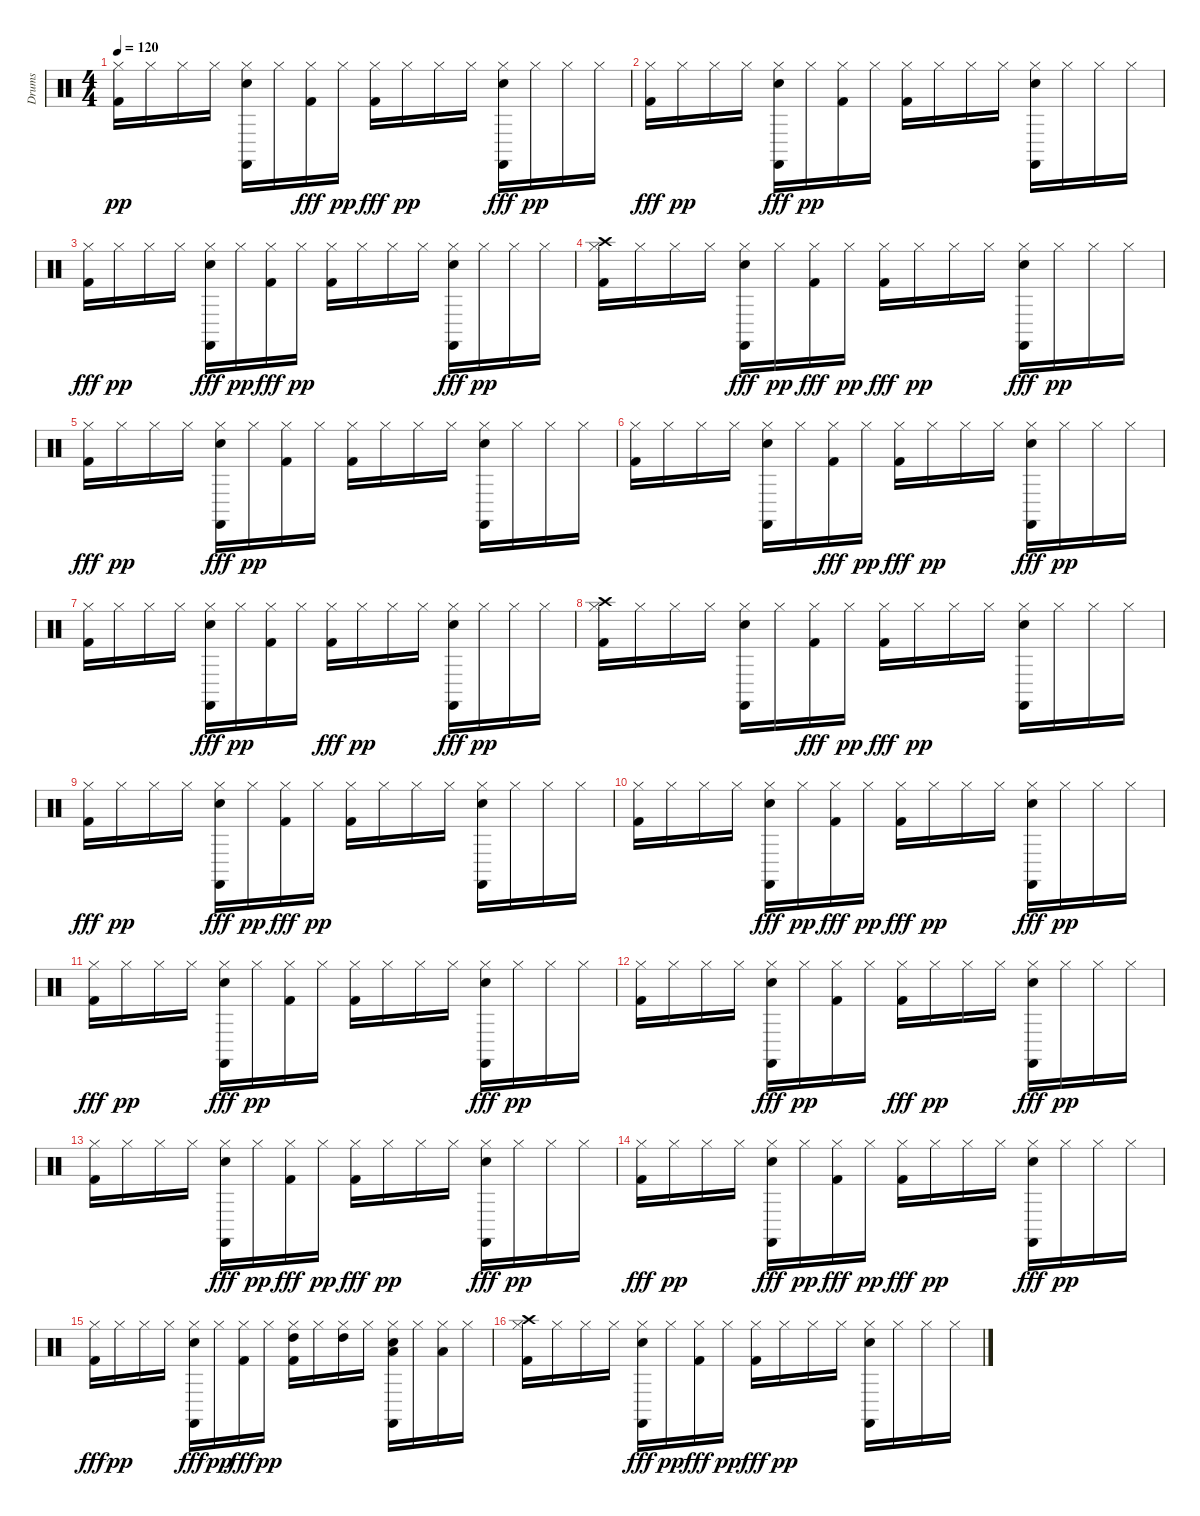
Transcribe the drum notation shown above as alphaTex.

\track ("Drums" "Drums") {instrument percussion}
\staff {score}
\articulation defaults
\ts (4 4)
\tempo 120
\clef neutral
\ks c
("Kick (hit) 2" "Hi-Hat (closed)").16{dy pp} "Hi-Hat (closed)".16 "Hi-Hat (closed)".16 "Hi-Hat (closed)".16 ("Castanets (hit)" "Snare (hit) 2" "Hi-Hat (closed)").16 "Hi-Hat (closed)".16 ("Hi-Hat (closed)" "Kick (hit) 2").16{dy fff} "Hi-Hat (closed)".16{dy pp} ("Hi-Hat (closed)" "Kick (hit) 2").16{dy fff} "Hi-Hat (closed)".16{dy pp} "Hi-Hat (closed)".16 "Hi-Hat (closed)".16 ("Hi-Hat (closed)" "Snare (hit) 2" "Castanets (hit)").16{dy fff} "Hi-Hat (closed)".16{dy pp} "Hi-Hat (closed)".16 "Hi-Hat (closed)".16 |
("Hi-Hat (closed)" "Kick (hit) 2").16{dy fff} "Hi-Hat (closed)".16{dy pp} "Hi-Hat (closed)".16 "Hi-Hat (closed)".16 ("Snare (hit) 2" "Hi-Hat (closed)" "Castanets (hit)").16{dy fff} "Hi-Hat (closed)".16{dy pp} ("Kick (hit) 2" "Hi-Hat (closed)").16 "Hi-Hat (closed)".16 ("Kick (hit) 2" "Hi-Hat (closed)").16 "Hi-Hat (closed)".16 "Hi-Hat (closed)".16 "Hi-Hat (closed)".16 ("Castanets (hit)" "Snare (hit) 2" "Hi-Hat (closed)").16 "Hi-Hat (closed)".16 "Hi-Hat (closed)".16 "Hi-Hat (closed)".16 |
("Hi-Hat (closed)" "Kick (hit) 2").16{dy fff} "Hi-Hat (closed)".16{dy pp} "Hi-Hat (closed)".16 "Hi-Hat (closed)".16 ("Hi-Hat (closed)" "Snare (hit) 2" "Castanets (hit)").16{dy fff} "Hi-Hat (closed)".16{dy pp} ("Hi-Hat (closed)" "Kick (hit) 2").16{dy fff} "Hi-Hat (closed)".16{dy pp} ("Kick (hit) 2" "Hi-Hat (closed)").16 "Hi-Hat (closed)".16 "Hi-Hat (closed)".16 "Hi-Hat (closed)".16 ("Snare (hit) 2" "Hi-Hat (closed)" "Castanets (hit)").16{dy fff} "Hi-Hat (closed)".16{dy pp} "Hi-Hat (closed)".16 "Hi-Hat (closed)".16 |
("Kick (hit) 2" "Crash high (hit)" "Hi-Hat (closed)").16 "Hi-Hat (closed)".16 "Hi-Hat (closed)".16 "Hi-Hat (closed)".16 ("Hi-Hat (closed)" "Snare (hit) 2" "Castanets (hit)").16{dy fff} "Hi-Hat (closed)".16{dy pp} ("Hi-Hat (closed)" "Kick (hit) 2").16{dy fff} "Hi-Hat (closed)".16{dy pp} ("Hi-Hat (closed)" "Kick (hit) 2").16{dy fff} "Hi-Hat (closed)".16{dy pp} "Hi-Hat (closed)".16 "Hi-Hat (closed)".16 ("Hi-Hat (closed)" "Snare (hit) 2" "Castanets (hit)").16{dy fff} "Hi-Hat (closed)".16{dy pp} "Hi-Hat (closed)".16 "Hi-Hat (closed)".16 |
("Hi-Hat (closed)" "Kick (hit) 2").16{dy fff} "Hi-Hat (closed)".16{dy pp} "Hi-Hat (closed)".16 "Hi-Hat (closed)".16 ("Hi-Hat (closed)" "Snare (hit) 2" "Castanets (hit)").16{dy fff} "Hi-Hat (closed)".16{dy pp} ("Kick (hit) 2" "Hi-Hat (closed)").16 "Hi-Hat (closed)".16 ("Kick (hit) 2" "Hi-Hat (closed)").16 "Hi-Hat (closed)".16 "Hi-Hat (closed)".16 "Hi-Hat (closed)".16 ("Castanets (hit)" "Snare (hit) 2" "Hi-Hat (closed)").16 "Hi-Hat (closed)".16 "Hi-Hat (closed)".16 "Hi-Hat (closed)".16 |
("Kick (hit) 2" "Hi-Hat (closed)").16 "Hi-Hat (closed)".16 "Hi-Hat (closed)".16 "Hi-Hat (closed)".16 ("Snare (hit) 2" "Castanets (hit)" "Hi-Hat (closed)").16 "Hi-Hat (closed)".16 ("Hi-Hat (closed)" "Kick (hit) 2").16{dy fff} "Hi-Hat (closed)".16{dy pp} ("Hi-Hat (closed)" "Kick (hit) 2").16{dy fff} "Hi-Hat (closed)".16{dy pp} "Hi-Hat (closed)".16 "Hi-Hat (closed)".16 ("Hi-Hat (closed)" "Snare (hit) 2" "Castanets (hit)").16{dy fff} "Hi-Hat (closed)".16{dy pp} "Hi-Hat (closed)".16 "Hi-Hat (closed)".16 |
("Kick (hit) 2" "Hi-Hat (closed)").16 "Hi-Hat (closed)".16 "Hi-Hat (closed)".16 "Hi-Hat (closed)".16 ("Hi-Hat (closed)" "Castanets (hit)" "Snare (hit) 2").16{dy fff} "Hi-Hat (closed)".16{dy pp} ("Kick (hit) 2" "Hi-Hat (closed)").16 "Hi-Hat (closed)".16 ("Hi-Hat (closed)" "Kick (hit) 2").16{dy fff} "Hi-Hat (closed)".16{dy pp} "Hi-Hat (closed)".16 "Hi-Hat (closed)".16 ("Snare (hit) 2" "Hi-Hat (closed)" "Castanets (hit)").16{dy fff} "Hi-Hat (closed)".16{dy pp} "Hi-Hat (closed)".16 "Hi-Hat (closed)".16 |
("Kick (hit) 2" "Hi-Hat (closed)" "Crash high (hit)").16 "Hi-Hat (closed)".16 "Hi-Hat (closed)".16 "Hi-Hat (closed)".16 ("Snare (hit) 2" "Castanets (hit)" "Hi-Hat (closed)").16 "Hi-Hat (closed)".16 ("Hi-Hat (closed)" "Kick (hit) 2").16{dy fff} "Hi-Hat (closed)".16{dy pp} ("Hi-Hat (closed)" "Kick (hit) 2").16{dy fff} "Hi-Hat (closed)".16{dy pp} "Hi-Hat (closed)".16 "Hi-Hat (closed)".16 ("Snare (hit) 2" "Castanets (hit)" "Hi-Hat (closed)").16 "Hi-Hat (closed)".16 "Hi-Hat (closed)".16 "Hi-Hat (closed)".16 |
("Hi-Hat (closed)" "Kick (hit) 2").16{dy fff} "Hi-Hat (closed)".16{dy pp} "Hi-Hat (closed)".16 "Hi-Hat (closed)".16 ("Hi-Hat (closed)" "Snare (hit) 2" "Castanets (hit)").16{dy fff} "Hi-Hat (closed)".16{dy pp} ("Hi-Hat (closed)" "Kick (hit) 2").16{dy fff} "Hi-Hat (closed)".16{dy pp} ("Kick (hit) 2" "Hi-Hat (closed)").16 "Hi-Hat (closed)".16 "Hi-Hat (closed)".16 "Hi-Hat (closed)".16 ("Snare (hit) 2" "Castanets (hit)" "Hi-Hat (closed)").16 "Hi-Hat (closed)".16 "Hi-Hat (closed)".16 "Hi-Hat (closed)".16 |
("Kick (hit) 2" "Hi-Hat (closed)").16 "Hi-Hat (closed)".16 "Hi-Hat (closed)".16 "Hi-Hat (closed)".16 ("Castanets (hit)" "Hi-Hat (closed)" "Snare (hit) 2").16{dy fff} "Hi-Hat (closed)".16{dy pp} ("Hi-Hat (closed)" "Kick (hit) 2").16{dy fff} "Hi-Hat (closed)".16{dy pp} ("Hi-Hat (closed)" "Kick (hit) 2").16{dy fff} "Hi-Hat (closed)".16{dy pp} "Hi-Hat (closed)".16 "Hi-Hat (closed)".16 ("Hi-Hat (closed)" "Snare (hit) 2" "Castanets (hit)").16{dy fff} "Hi-Hat (closed)".16{dy pp} "Hi-Hat (closed)".16 "Hi-Hat (closed)".16 |
("Hi-Hat (closed)" "Kick (hit) 2").16{dy fff} "Hi-Hat (closed)".16{dy pp} "Hi-Hat (closed)".16 "Hi-Hat (closed)".16 ("Castanets (hit)" "Hi-Hat (closed)" "Snare (hit) 2").16{dy fff} "Hi-Hat (closed)".16{dy pp} ("Kick (hit) 2" "Hi-Hat (closed)").16 "Hi-Hat (closed)".16 ("Kick (hit) 2" "Hi-Hat (closed)").16 "Hi-Hat (closed)".16 "Hi-Hat (closed)".16 "Hi-Hat (closed)".16 ("Castanets (hit)" "Hi-Hat (closed)" "Snare (hit) 2").16{dy fff} "Hi-Hat (closed)".16{dy pp} "Hi-Hat (closed)".16 "Hi-Hat (closed)".16 |
("Kick (hit) 2" "Hi-Hat (closed)").16 "Hi-Hat (closed)".16 "Hi-Hat (closed)".16 "Hi-Hat (closed)".16 ("Hi-Hat (closed)" "Castanets (hit)" "Snare (hit) 2").16{dy fff} "Hi-Hat (closed)".16{dy pp} ("Kick (hit) 2" "Hi-Hat (closed)").16 "Hi-Hat (closed)".16 ("Hi-Hat (closed)" "Kick (hit) 2").16{dy fff} "Hi-Hat (closed)".16{dy pp} "Hi-Hat (closed)".16 "Hi-Hat (closed)".16 ("Castanets (hit)" "Hi-Hat (closed)" "Snare (hit) 2").16{dy fff} "Hi-Hat (closed)".16{dy pp} "Hi-Hat (closed)".16 "Hi-Hat (closed)".16 |
("Kick (hit) 2" "Hi-Hat (closed)").16 "Hi-Hat (closed)".16 "Hi-Hat (closed)".16 "Hi-Hat (closed)".16 ("Hi-Hat (closed)" "Castanets (hit)" "Snare (hit) 2").16{dy fff} "Hi-Hat (closed)".16{dy pp} ("Hi-Hat (closed)" "Kick (hit) 2").16{dy fff} "Hi-Hat (closed)".16{dy pp} ("Hi-Hat (closed)" "Kick (hit) 2").16{dy fff} "Hi-Hat (closed)".16{dy pp} "Hi-Hat (closed)".16 "Hi-Hat (closed)".16 ("Hi-Hat (closed)" "Castanets (hit)" "Snare (hit) 2").16{dy fff} "Hi-Hat (closed)".16{dy pp} "Hi-Hat (closed)".16 "Hi-Hat (closed)".16 |
("Hi-Hat (closed)" "Kick (hit) 2").16{dy fff} "Hi-Hat (closed)".16{dy pp} "Hi-Hat (closed)".16 "Hi-Hat (closed)".16 ("Hi-Hat (closed)" "Snare (hit) 2" "Castanets (hit)").16{dy fff} "Hi-Hat (closed)".16{dy pp} ("Hi-Hat (closed)" "Kick (hit) 2").16{dy fff} "Hi-Hat (closed)".16{dy pp} ("Hi-Hat (closed)" "Kick (hit) 2").16{dy fff} "Hi-Hat (closed)".16{dy pp} "Hi-Hat (closed)".16 "Hi-Hat (closed)".16 ("Hi-Hat (closed)" "Snare (hit) 2" "Castanets (hit)").16{dy fff} "Hi-Hat (closed)".16{dy pp} "Hi-Hat (closed)".16 "Hi-Hat (closed)".16 |
("Hi-Hat (closed)" "Kick (hit) 2").16{dy fff} "Hi-Hat (closed)".16{dy pp} "Hi-Hat (closed)".16 "Hi-Hat (closed)".16 ("Hi-Hat (closed)" "Castanets (hit)" "Snare (hit) 2").16{dy fff} "Hi-Hat (closed)".16{dy pp} ("Hi-Hat (closed)" "Kick (hit) 2").16{dy fff} "Hi-Hat (closed)".16{dy pp} ("Kick (hit) 2" "High Tom (hit)" "Hi-Hat (closed)").16 "Hi-Hat (closed)".16 ("High Tom (hit)" "Hi-Hat (closed)").16 "Hi-Hat (closed)".16 ("Snare (hit) 2" "Low Tom (hit)" "Castanets (hit)" "Hi-Hat (closed)").16 "Hi-Hat (closed)".16 ("Low Tom (hit)" "Hi-Hat (closed)").16 "Hi-Hat (closed)".16 |
("Kick (hit) 2" "Crash high (hit)" "Hi-Hat (closed)").16 "Hi-Hat (closed)".16 "Hi-Hat (closed)".16 "Hi-Hat (closed)".16 ("Hi-Hat (closed)" "Castanets (hit)" "Snare (hit) 2").16{dy fff} "Hi-Hat (closed)".16{dy pp} ("Hi-Hat (closed)" "Kick (hit) 2").16{dy fff} "Hi-Hat (closed)".16{dy pp} ("Hi-Hat (closed)" "Kick (hit) 2").16{dy fff} "Hi-Hat (closed)".16{dy pp} "Hi-Hat (closed)".16 "Hi-Hat (closed)".16 ("Snare (hit) 2" "Castanets (hit)" "Hi-Hat (closed)").16 "Hi-Hat (closed)".16 "Hi-Hat (closed)".16 "Hi-Hat (closed)".16
